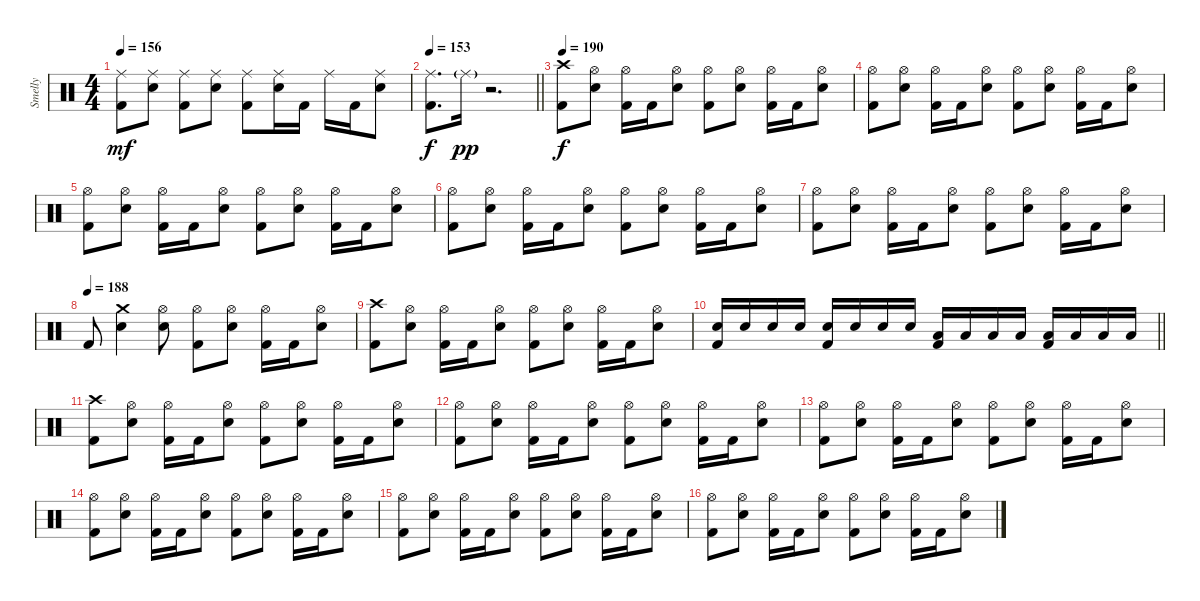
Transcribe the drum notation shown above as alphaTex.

\track ("Smelly" "Smelly") {instrument percussion}
\staff {score}
\articulation defaults
\ts (4 4)
\tempo 156
\clef neutral
\ks c
("Ride (middle)" "Kick (hit) 2").8{dy mf} ("Ride (middle)" "Electric Snare (hit)").8 ("Ride (middle)" "Kick (hit) 2").8 ("Ride (middle)" "Electric Snare (hit)").8 ("Ride (middle)" "Kick (hit) 2").8 ("Ride (middle)" "Electric Snare (hit)").16 "Kick (hit) 2".16 "Ride (middle)".16 "Kick (hit) 2".16 ("Ride (middle)" "Electric Snare (hit)").8 |
\tempo 153
\barLineRight lightlight
("Ride (middle)" "Kick (hit) 2").8{d dy f} "Ride (middle)"{g}.16{dy pp} r.2{d} |
\section ("" "")
\tempo 190
("Crash high (hit)" "Kick (hit) 2").8{dy f} ("Hi-Hat (open)" "Electric Snare (hit)").8 ("Hi-Hat (open)" "Kick (hit) 2").16 "Kick (hit) 2".16 ("Hi-Hat (open)" "Electric Snare (hit)").8 ("Hi-Hat (open)" "Kick (hit) 2").8 ("Hi-Hat (open)" "Electric Snare (hit)").8 ("Hi-Hat (open)" "Kick (hit) 2").16 "Kick (hit) 2".16 ("Hi-Hat (open)" "Electric Snare (hit)").8 |
("Hi-Hat (open)" "Kick (hit) 2").8 ("Hi-Hat (open)" "Electric Snare (hit)").8 ("Hi-Hat (open)" "Kick (hit) 2").16 "Kick (hit) 2".16 ("Hi-Hat (open)" "Electric Snare (hit)").8 ("Hi-Hat (open)" "Kick (hit) 2").8 ("Hi-Hat (open)" "Electric Snare (hit)").8 ("Hi-Hat (open)" "Kick (hit) 2").16 "Kick (hit) 2".16 ("Hi-Hat (open)" "Electric Snare (hit)").8 |
("Hi-Hat (open)" "Kick (hit) 2").8 ("Hi-Hat (open)" "Electric Snare (hit)").8 ("Hi-Hat (open)" "Kick (hit) 2").16 "Kick (hit) 2".16 ("Hi-Hat (open)" "Electric Snare (hit)").8 ("Hi-Hat (open)" "Kick (hit) 2").8 ("Hi-Hat (open)" "Electric Snare (hit)").8 ("Hi-Hat (open)" "Kick (hit) 2").16 "Kick (hit) 2".16 ("Hi-Hat (open)" "Electric Snare (hit)").8 |
("Hi-Hat (open)" "Kick (hit) 2").8 ("Hi-Hat (open)" "Electric Snare (hit)").8 ("Hi-Hat (open)" "Kick (hit) 2").16 "Kick (hit) 2".16 ("Hi-Hat (open)" "Electric Snare (hit)").8 ("Hi-Hat (open)" "Kick (hit) 2").8 ("Hi-Hat (open)" "Electric Snare (hit)").8 ("Hi-Hat (open)" "Kick (hit) 2").16 "Kick (hit) 2".16 ("Hi-Hat (open)" "Electric Snare (hit)").8 |
("Hi-Hat (open)" "Kick (hit) 2").8 ("Hi-Hat (open)" "Electric Snare (hit)").8 ("Hi-Hat (open)" "Kick (hit) 2").16 "Kick (hit) 2".16 ("Hi-Hat (open)" "Electric Snare (hit)").8 ("Hi-Hat (open)" "Kick (hit) 2").8 ("Hi-Hat (open)" "Electric Snare (hit)").8 ("Hi-Hat (open)" "Kick (hit) 2").16 "Kick (hit) 2".16 ("Hi-Hat (open)" "Electric Snare (hit)").8 |
\tempo (188)
"Kick (hit) 2".8 ("Crash medium (hit)" "Electric Snare (hit)").4 ("Hi-Hat (open)" "Electric Snare (hit)").8 ("Hi-Hat (open)" "Kick (hit) 2").8 ("Hi-Hat (open)" "Electric Snare (hit)").8 ("Hi-Hat (open)" "Kick (hit) 2").16 "Kick (hit) 2".16 ("Hi-Hat (open)" "Electric Snare (hit)").8 |
("Crash high (hit)" "Kick (hit) 2").8 ("Hi-Hat (open)" "Electric Snare (hit)").8 ("Hi-Hat (open)" "Kick (hit) 2").16 "Kick (hit) 2".16 ("Hi-Hat (open)" "Electric Snare (hit)").8 ("Hi-Hat (open)" "Kick (hit) 2").8 ("Hi-Hat (open)" "Electric Snare (hit)").8 ("Hi-Hat (open)" "Kick (hit) 2").16 "Kick (hit) 2".16 ("Hi-Hat (open)" "Electric Snare (hit)").8 |
\barLineRight lightlight
("Electric Snare (hit)" "Kick (hit) 2").16 "Electric Snare (hit)".16 "Electric Snare (hit)".16 "Electric Snare (hit)".16 ("Electric Snare (hit)" "Kick (hit) 2").16 "Electric Snare (hit)".16 "Electric Snare (hit)".16 "Electric Snare (hit)".16 ("Low Tom (hit)" "Kick (hit) 2").16 "Low Tom (hit)".16 "Low Tom (hit)".16 "Low Tom (hit)".16 ("Low Floor Tom (hit)" "Kick (hit) 2").16 "Low Floor Tom (hit)".16 "Low Floor Tom (hit)".16 "Low Floor Tom (hit)".16 |
\section ("" "")
("Crash high (hit)" "Kick (hit) 2").8 ("Hi-Hat (open)" "Electric Snare (hit)").8 ("Hi-Hat (open)" "Kick (hit) 2").16 "Kick (hit) 2".16 ("Hi-Hat (open)" "Electric Snare (hit)").8 ("Hi-Hat (open)" "Kick (hit) 2").8 ("Hi-Hat (open)" "Electric Snare (hit)").8 ("Hi-Hat (open)" "Kick (hit) 2").16 "Kick (hit) 2".16 ("Hi-Hat (open)" "Electric Snare (hit)").8 |
("Hi-Hat (open)" "Kick (hit) 2").8 ("Hi-Hat (open)" "Electric Snare (hit)").8 ("Hi-Hat (open)" "Kick (hit) 2").16 "Kick (hit) 2".16 ("Hi-Hat (open)" "Electric Snare (hit)").8 ("Hi-Hat (open)" "Kick (hit) 2").8 ("Hi-Hat (open)" "Electric Snare (hit)").8 ("Hi-Hat (open)" "Kick (hit) 2").16 "Kick (hit) 2".16 ("Hi-Hat (open)" "Electric Snare (hit)").8 |
("Hi-Hat (open)" "Kick (hit) 2").8 ("Hi-Hat (open)" "Electric Snare (hit)").8 ("Hi-Hat (open)" "Kick (hit) 2").16 "Kick (hit) 2".16 ("Hi-Hat (open)" "Electric Snare (hit)").8 ("Hi-Hat (open)" "Kick (hit) 2").8 ("Hi-Hat (open)" "Electric Snare (hit)").8 ("Hi-Hat (open)" "Kick (hit) 2").16 "Kick (hit) 2".16 ("Hi-Hat (open)" "Electric Snare (hit)").8 |
("Hi-Hat (open)" "Kick (hit) 2").8 ("Hi-Hat (open)" "Electric Snare (hit)").8 ("Hi-Hat (open)" "Kick (hit) 2").16 "Kick (hit) 2".16 ("Hi-Hat (open)" "Electric Snare (hit)").8 ("Hi-Hat (open)" "Kick (hit) 2").8 ("Hi-Hat (open)" "Electric Snare (hit)").8 ("Hi-Hat (open)" "Kick (hit) 2").16 "Kick (hit) 2".16 ("Hi-Hat (open)" "Electric Snare (hit)").8 |
("Hi-Hat (open)" "Kick (hit) 2").8 ("Hi-Hat (open)" "Electric Snare (hit)").8 ("Hi-Hat (open)" "Kick (hit) 2").16 "Kick (hit) 2".16 ("Hi-Hat (open)" "Electric Snare (hit)").8 ("Hi-Hat (open)" "Kick (hit) 2").8 ("Hi-Hat (open)" "Electric Snare (hit)").8 ("Hi-Hat (open)" "Kick (hit) 2").16 "Kick (hit) 2".16 ("Hi-Hat (open)" "Electric Snare (hit)").8 |
("Hi-Hat (open)" "Kick (hit) 2").8 ("Hi-Hat (open)" "Electric Snare (hit)").8 ("Hi-Hat (open)" "Kick (hit) 2").16 "Kick (hit) 2".16 ("Hi-Hat (open)" "Electric Snare (hit)").8 ("Hi-Hat (open)" "Kick (hit) 2").8 ("Hi-Hat (open)" "Electric Snare (hit)").8 ("Hi-Hat (open)" "Kick (hit) 2").16 "Kick (hit) 2".16 ("Hi-Hat (open)" "Electric Snare (hit)").8
